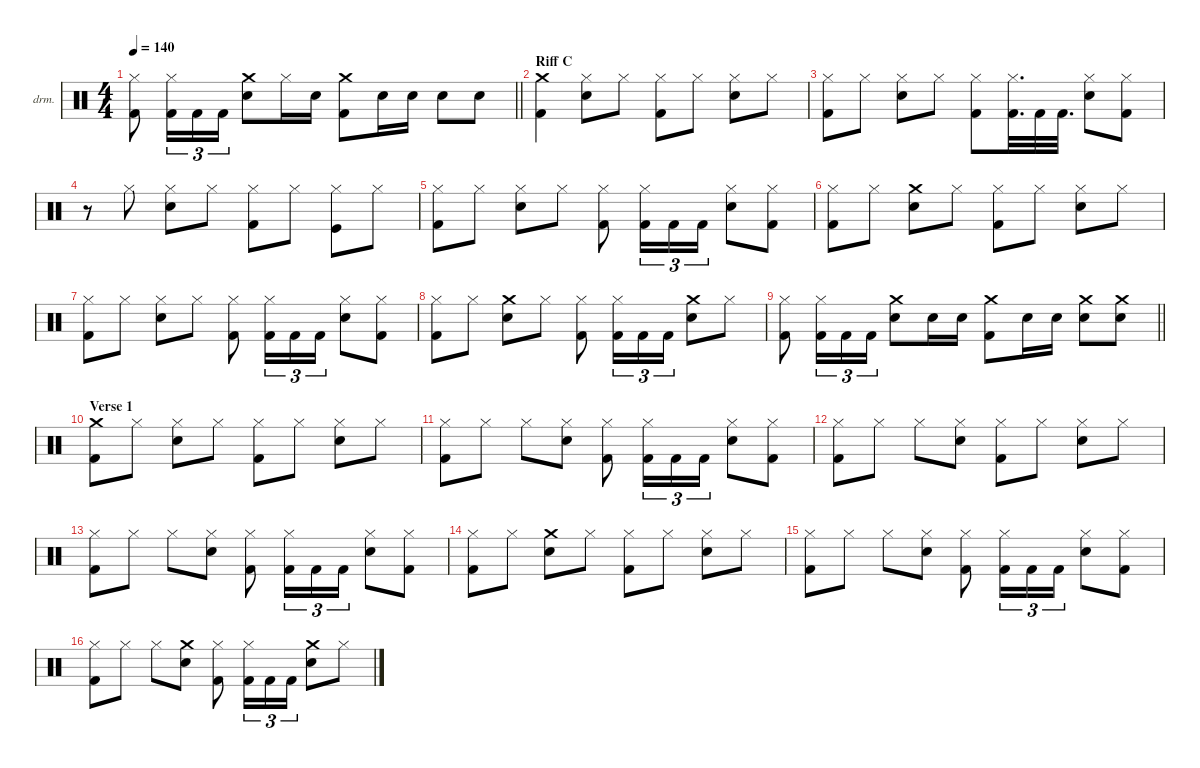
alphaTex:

\defaultSystemsLayout 4
\hideDynamics
\bracketExtendMode nobrackets
\firstSystemTrackNameOrientation horizontal
\otherSystemsTrackNameOrientation horizontal
\track ("Drums" "drm.") {instrument percussion}
\staff {score}
\articulation defaults
\ts (4 4)
\tempo 140
\clef neutral
\barLineRight lightlight
\ks c
("Hi-Hat (closed)" "Kick (hit) 2").8{dy f} ("Hi-Hat (closed)" "Kick (hit) 2").16{tu (3 2)} "Kick (hit) 2".16{tu (3 2)} "Kick (hit) 2".16{tu (3 2)} ("Snare (hit) 2" "Crash medium (hit)").8 "Hi-Hat (closed)".16 "Snare (hit) 2".16 ("Kick (hit) 2" "Crash medium (hit)").8 "Snare (hit) 2".16 "Snare (hit) 2".16 "Snare (hit) 2".8 "Snare (hit) 2".8 |
\section ("" "Riff C")
("Kick (hit) 2" "Crash medium (hit)").4 ("Snare (hit) 2" "Hi-Hat (closed)").8 "Hi-Hat (closed)".8 ("Hi-Hat (closed)" "Kick (hit) 2").8 "Hi-Hat (closed)".8 ("Snare (hit) 2" "Hi-Hat (closed)").8 "Hi-Hat (closed)".8 |
("Hi-Hat (closed)" "Kick (hit) 2").8 "Hi-Hat (closed)".8 ("Snare (hit) 2" "Hi-Hat (closed)").8 "Hi-Hat (closed)".8 ("Kick (hit) 2" "Hi-Hat (closed)").8 ("Kick (hit) 2" "Hi-Hat (closed)").32{d} "Kick (hit) 2".32 "Kick (hit) 2".32{d} ("Snare (hit) 2" "Hi-Hat (closed)").8 ("Kick (hit) 2" "Hi-Hat (closed)").8 |
r.8 "Hi-Hat (closed)".8 ("Snare (hit) 2" "Hi-Hat (closed)").8 "Hi-Hat (closed)".8 ("Kick (hit) 2" "Hi-Hat (closed)").8 "Hi-Hat (closed)".8 ("Kick (hit)" "Hi-Hat (closed)").8 "Hi-Hat (closed)".8 |
("Hi-Hat (closed)" "Kick (hit) 2").8 "Hi-Hat (closed)".8 ("Snare (hit) 2" "Hi-Hat (closed)").8 "Hi-Hat (closed)".8 ("Kick (hit) 2" "Hi-Hat (closed)").8 ("Kick (hit) 2" "Hi-Hat (closed)").16{tu (3 2)} "Kick (hit) 2".16{tu (3 2)} "Kick (hit) 2".16{tu (3 2)} ("Snare (hit) 2" "Hi-Hat (closed)").8 ("Kick (hit) 2" "Hi-Hat (closed)").8 |
("Hi-Hat (closed)" "Kick (hit) 2").8 "Hi-Hat (closed)".8 ("Crash medium (hit)" "Snare (hit) 2").8 "Hi-Hat (closed)".8 ("Hi-Hat (closed)" "Kick (hit) 2").8 "Hi-Hat (closed)".8 ("Snare (hit) 2" "Hi-Hat (closed)").8 "Hi-Hat (closed)".8 |
("Hi-Hat (closed)" "Kick (hit) 2").8 "Hi-Hat (closed)".8 ("Snare (hit) 2" "Hi-Hat (closed)").8 "Hi-Hat (closed)".8 ("Kick (hit) 2" "Hi-Hat (closed)").8 ("Kick (hit) 2" "Hi-Hat (closed)").16{tu (3 2)} "Kick (hit) 2".16{tu (3 2)} "Kick (hit) 2".16{tu (3 2)} ("Snare (hit) 2" "Hi-Hat (closed)").8 ("Kick (hit) 2" "Hi-Hat (closed)").8 |
("Kick (hit) 2" "Hi-Hat (closed)").8 "Hi-Hat (closed)".8 ("Snare (hit) 2" "Crash medium (hit)").8 "Hi-Hat (closed)".8 ("Kick (hit) 2" "Hi-Hat (closed)").8 ("Kick (hit) 2" "Hi-Hat (closed)").16{tu (3 2)} "Kick (hit) 2".16{tu (3 2)} "Kick (hit) 2".16{tu (3 2)} ("Crash medium (hit)" "Snare (hit) 2").8 "Hi-Hat (closed)".8 |
\barLineRight lightlight
("Hi-Hat (closed)" "Kick (hit) 2").8 ("Hi-Hat (closed)" "Kick (hit) 2").16{tu (3 2)} "Kick (hit) 2".16{tu (3 2)} "Kick (hit) 2".16{tu (3 2)} ("Snare (hit) 2" "Crash medium (hit)").8 "Snare (hit) 2".16 "Snare (hit) 2".16 ("Kick (hit) 2" "Crash medium (hit)").8 "Snare (hit) 2".16 "Snare (hit) 2".16 ("Crash medium (hit)" "Snare (hit) 2").8 ("Crash medium (hit)" "Snare (hit) 2").8 |
\section ("" "Verse 1")
("Kick (hit) 2" "Crash medium (hit)").8 "Hi-Hat (closed)".8 ("Snare (hit) 2" "Hi-Hat (closed)").8 "Hi-Hat (closed)".8 ("Kick (hit) 2" "Hi-Hat (closed)").8 "Hi-Hat (closed)".8 ("Snare (hit) 2" "Hi-Hat (closed)").8 "Hi-Hat (closed)".8 |
("Kick (hit) 2" "Hi-Hat (closed)").8 "Hi-Hat (closed)".8 "Hi-Hat (closed)".8 ("Snare (hit) 2" "Hi-Hat (closed)").8 ("Kick (hit) 2" "Hi-Hat (closed)").8 ("Kick (hit) 2" "Hi-Hat (closed)").16{tu (3 2)} "Kick (hit) 2".16{tu (3 2)} "Kick (hit) 2".16{tu (3 2)} ("Snare (hit) 2" "Hi-Hat (closed)").8 ("Kick (hit) 2" "Hi-Hat (closed)").8 |
("Hi-Hat (closed)" "Kick (hit) 2").8 "Hi-Hat (closed)".8 "Hi-Hat (closed)".8 ("Snare (hit) 2" "Hi-Hat (closed)").8 ("Hi-Hat (closed)" "Kick (hit) 2").8 "Hi-Hat (closed)".8 ("Snare (hit) 2" "Hi-Hat (closed)").8 "Hi-Hat (closed)".8 |
("Kick (hit) 2" "Hi-Hat (closed)").8 "Hi-Hat (closed)".8 "Hi-Hat (closed)".8 ("Snare (hit) 2" "Hi-Hat (closed)").8 ("Kick (hit) 2" "Hi-Hat (closed)").8 ("Kick (hit) 2" "Hi-Hat (closed)").16{tu (3 2)} "Kick (hit) 2".16{tu (3 2)} "Kick (hit) 2".16{tu (3 2)} ("Snare (hit) 2" "Hi-Hat (closed)").8 ("Kick (hit) 2" "Hi-Hat (closed)").8 |
("Hi-Hat (closed)" "Kick (hit) 2").8 "Hi-Hat (closed)".8 ("Crash medium (hit)" "Snare (hit) 2").8 "Hi-Hat (closed)".8 ("Hi-Hat (closed)" "Kick (hit) 2").8 "Hi-Hat (closed)".8 ("Snare (hit) 2" "Hi-Hat (closed)").8 "Hi-Hat (closed)".8 |
("Kick (hit) 2" "Hi-Hat (closed)").8 "Hi-Hat (closed)".8 "Hi-Hat (closed)".8 ("Snare (hit) 2" "Hi-Hat (closed)").8 ("Kick (hit) 2" "Hi-Hat (closed)").8 ("Kick (hit) 2" "Hi-Hat (closed)").16{tu (3 2)} "Kick (hit) 2".16{tu (3 2)} "Kick (hit) 2".16{tu (3 2)} ("Snare (hit) 2" "Hi-Hat (closed)").8 ("Kick (hit) 2" "Hi-Hat (closed)").8 |
("Kick (hit) 2" "Hi-Hat (closed)").8 "Hi-Hat (closed)".8 "Hi-Hat (closed)".8 ("Crash medium (hit)" "Snare (hit) 2").8 ("Kick (hit) 2" "Hi-Hat (closed)").8 ("Kick (hit) 2" "Hi-Hat (closed)").16{tu (3 2)} "Kick (hit) 2".16{tu (3 2)} "Kick (hit) 2".16{tu (3 2)} ("Crash medium (hit)" "Snare (hit) 2").8 "Hi-Hat (closed)".8
